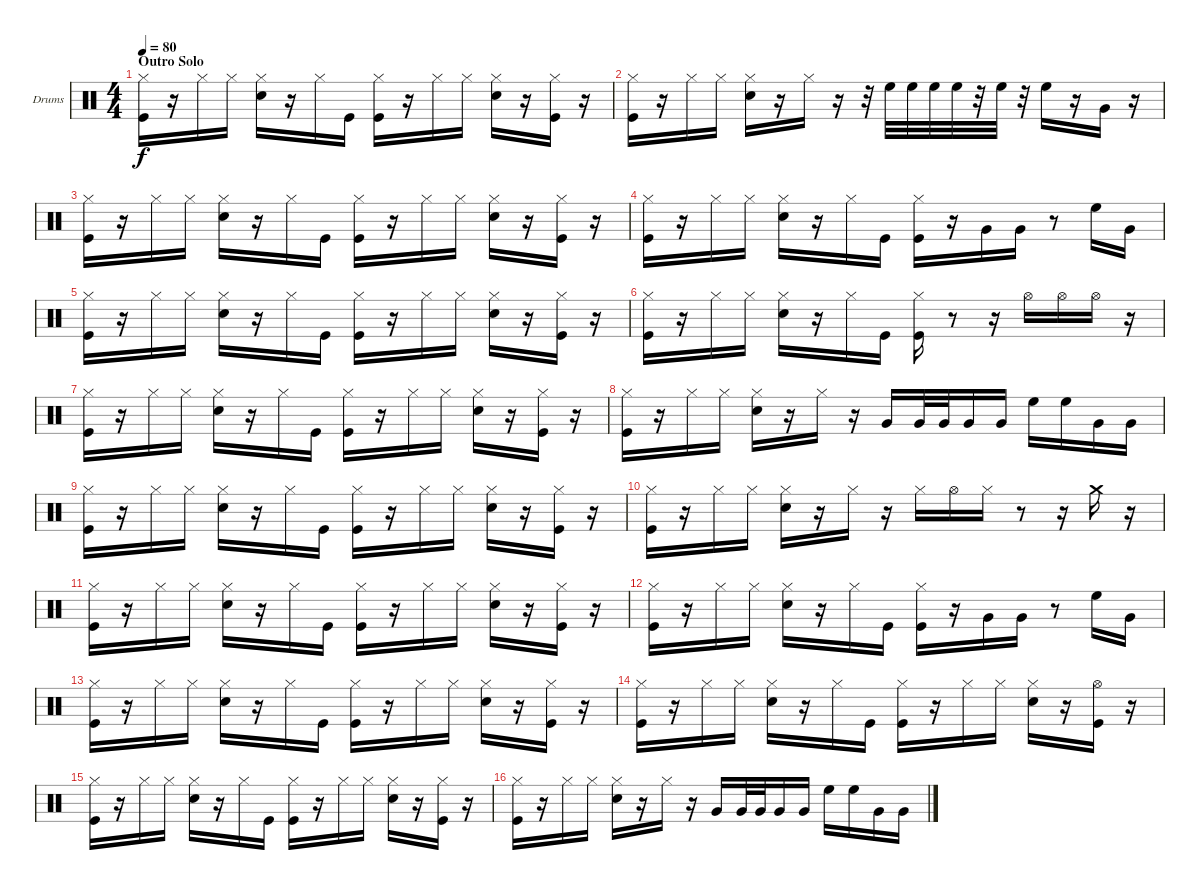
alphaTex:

\bracketExtendMode groupsimilarinstruments
\firstSystemTrackNameOrientation horizontal
\otherSystemsTrackNameOrientation horizontal
\track ("Drumkit" "Drums") {instrument percussion}
\staff {score}
\articulation defaults
\ts (4 4)
\section ("" "Outro Solo")
\tempo 80
\clef neutral
\ks c
("Kick (hit)" "Hi-Hat (closed)").16{dy f} r.16 "Hi-Hat (closed)".16 "Hi-Hat (closed)".16 ("Snare (hit) 2" "Hi-Hat (closed)").16 r.16 "Hi-Hat (closed)".16 "Kick (hit)".16 ("Kick (hit)" "Hi-Hat (closed)").16 r.16 "Hi-Hat (closed)".16 "Hi-Hat (closed)".16 ("Snare (hit) 2" "Hi-Hat (closed)").16 r.16 ("Kick (hit)" "Hi-Hat (closed)").16 r.16 |
("Kick (hit)" "Hi-Hat (closed)").16 r.16 "Hi-Hat (closed)".16 "Hi-Hat (closed)".16 ("Snare (hit) 2" "Hi-Hat (closed)").16 r.16 "Hi-Hat (closed)".16 r.16 r.32 "High Floor Tom (hit)".32 "High Floor Tom (hit)".32 "High Floor Tom (hit)".32 "High Floor Tom (hit)".32 r.32 "High Floor Tom (hit)".32 r.32 "High Floor Tom (hit)".16 r.16 "Very Low Tom (hit)".16 r.16 |
("Kick (hit)" "Hi-Hat (closed)").16 r.16 "Hi-Hat (closed)".16 "Hi-Hat (closed)".16 ("Snare (hit) 2" "Hi-Hat (closed)").16 r.16 "Hi-Hat (closed)".16 "Kick (hit)".16 ("Kick (hit)" "Hi-Hat (closed)").16 r.16 "Hi-Hat (closed)".16 "Hi-Hat (closed)".16 ("Snare (hit) 2" "Hi-Hat (closed)").16 r.16 ("Kick (hit)" "Hi-Hat (closed)").16 r.16 |
("Kick (hit)" "Hi-Hat (closed)").16 r.16 "Hi-Hat (closed)".16 "Hi-Hat (closed)".16 ("Snare (hit) 2" "Hi-Hat (closed)").16 r.16 "Hi-Hat (closed)".16 "Kick (hit)".16 ("Kick (hit)" "Hi-Hat (closed)").16 r.16 "Very Low Tom (hit)".16 "Very Low Tom (hit)".16 r.8 "High Floor Tom (hit)".16 "Very Low Tom (hit)".16 |
("Kick (hit)" "Hi-Hat (closed)").16 r.16 "Hi-Hat (closed)".16 "Hi-Hat (closed)".16 ("Snare (hit) 2" "Hi-Hat (closed)").16 r.16 "Hi-Hat (closed)".16 "Kick (hit)".16 ("Kick (hit)" "Hi-Hat (closed)").16 r.16 "Hi-Hat (closed)".16 "Hi-Hat (closed)".16 ("Snare (hit) 2" "Hi-Hat (closed)").16 r.16 ("Kick (hit)" "Hi-Hat (closed)").16 r.16 |
("Kick (hit)" "Hi-Hat (closed)").16 r.16 "Hi-Hat (closed)".16 "Hi-Hat (closed)".16 ("Snare (hit) 2" "Hi-Hat (closed)").16 r.16 "Hi-Hat (closed)".16 "Kick (hit)".16 ("Kick (hit)" "Hi-Hat (closed)").16 r.8 r.16 "Hi-Hat (open)".16 "Hi-Hat (open)".16 "Hi-Hat (open)".16 r.16 |
("Kick (hit)" "Hi-Hat (closed)").16 r.16 "Hi-Hat (closed)".16 "Hi-Hat (closed)".16 ("Snare (hit) 2" "Hi-Hat (closed)").16 r.16 "Hi-Hat (closed)".16 "Kick (hit)".16 ("Kick (hit)" "Hi-Hat (closed)").16 r.16 "Hi-Hat (closed)".16 "Hi-Hat (closed)".16 ("Snare (hit) 2" "Hi-Hat (closed)").16 r.16 ("Kick (hit)" "Hi-Hat (closed)").16 r.16 |
("Kick (hit)" "Hi-Hat (closed)").16 r.16 "Hi-Hat (closed)".16 "Hi-Hat (closed)".16 ("Snare (hit) 2" "Hi-Hat (closed)").16 r.16 "Hi-Hat (closed)".16 r.16 "Very Low Tom (hit)".16 "Very Low Tom (hit)".32 "Very Low Tom (hit)".32 "Very Low Tom (hit)".16 "Very Low Tom (hit)".16 "High Floor Tom (hit)".16 "High Floor Tom (hit)".16 "Very Low Tom (hit)".16 "Very Low Tom (hit)".16 |
("Kick (hit)" "Hi-Hat (closed)").16 r.16 "Hi-Hat (closed)".16 "Hi-Hat (closed)".16 ("Snare (hit) 2" "Hi-Hat (closed)").16 r.16 "Hi-Hat (closed)".16 "Kick (hit)".16 ("Kick (hit)" "Hi-Hat (closed)").16 r.16 "Hi-Hat (closed)".16 "Hi-Hat (closed)".16 ("Snare (hit) 2" "Hi-Hat (closed)").16 r.16 ("Kick (hit)" "Hi-Hat (closed)").16 r.16 |
("Kick (hit)" "Hi-Hat (closed)").16 r.16 "Hi-Hat (closed)".16 "Hi-Hat (closed)".16 ("Snare (hit) 2" "Hi-Hat (closed)").16 r.16 "Hi-Hat (closed)".16 r.16 "Hi-Hat (closed)".16 "Hi-Hat (open)".16 "Hi-Hat (closed)".16 r.8 r.16 "Crash medium (hit)".16 r.16 |
("Kick (hit)" "Hi-Hat (closed)").16 r.16 "Hi-Hat (closed)".16 "Hi-Hat (closed)".16 ("Snare (hit) 2" "Hi-Hat (closed)").16 r.16 "Hi-Hat (closed)".16 "Kick (hit)".16 ("Kick (hit)" "Hi-Hat (closed)").16 r.16 "Hi-Hat (closed)".16 "Hi-Hat (closed)".16 ("Snare (hit) 2" "Hi-Hat (closed)").16 r.16 ("Kick (hit)" "Hi-Hat (closed)").16 r.16 |
("Kick (hit)" "Hi-Hat (closed)").16 r.16 "Hi-Hat (closed)".16 "Hi-Hat (closed)".16 ("Snare (hit) 2" "Hi-Hat (closed)").16 r.16 "Hi-Hat (closed)".16 "Kick (hit)".16 ("Kick (hit)" "Hi-Hat (closed)").16 r.16 "Very Low Tom (hit)".16 "Very Low Tom (hit)".16 r.8 "High Floor Tom (hit)".16 "Very Low Tom (hit)".16 |
("Kick (hit)" "Hi-Hat (closed)").16 r.16 "Hi-Hat (closed)".16 "Hi-Hat (closed)".16 ("Snare (hit) 2" "Hi-Hat (closed)").16 r.16 "Hi-Hat (closed)".16 "Kick (hit)".16 ("Kick (hit)" "Hi-Hat (closed)").16 r.16 "Hi-Hat (closed)".16 "Hi-Hat (closed)".16 ("Snare (hit) 2" "Hi-Hat (closed)").16 r.16 ("Kick (hit)" "Hi-Hat (closed)").16 r.16 |
("Kick (hit)" "Hi-Hat (closed)").16 r.16 "Hi-Hat (closed)".16 "Hi-Hat (closed)".16 ("Snare (hit) 2" "Hi-Hat (closed)").16 r.16 "Hi-Hat (closed)".16 "Kick (hit)".16 ("Kick (hit)" "Hi-Hat (closed)").16 r.16 "Hi-Hat (closed)".16 "Hi-Hat (closed)".16 ("Snare (hit) 2" "Hi-Hat (closed)").16 r.16 ("Kick (hit)" "Hi-Hat (open)").16 r.16 |
("Kick (hit)" "Hi-Hat (closed)").16 r.16 "Hi-Hat (closed)".16 "Hi-Hat (closed)".16 ("Snare (hit) 2" "Hi-Hat (closed)").16 r.16 "Hi-Hat (closed)".16 "Kick (hit)".16 ("Kick (hit)" "Hi-Hat (closed)").16 r.16 "Hi-Hat (closed)".16 "Hi-Hat (closed)".16 ("Snare (hit) 2" "Hi-Hat (closed)").16 r.16 ("Kick (hit)" "Hi-Hat (closed)").16 r.16 |
("Kick (hit)" "Hi-Hat (closed)").16 r.16 "Hi-Hat (closed)".16 "Hi-Hat (closed)".16 ("Snare (hit) 2" "Hi-Hat (closed)").16 r.16 "Hi-Hat (closed)".16 r.16 "Very Low Tom (hit)".16 "Very Low Tom (hit)".32 "Very Low Tom (hit)".32 "Very Low Tom (hit)".16 "Very Low Tom (hit)".16 "High Floor Tom (hit)".16 "High Floor Tom (hit)".16 "Very Low Tom (hit)".16 "Very Low Tom (hit)".16
